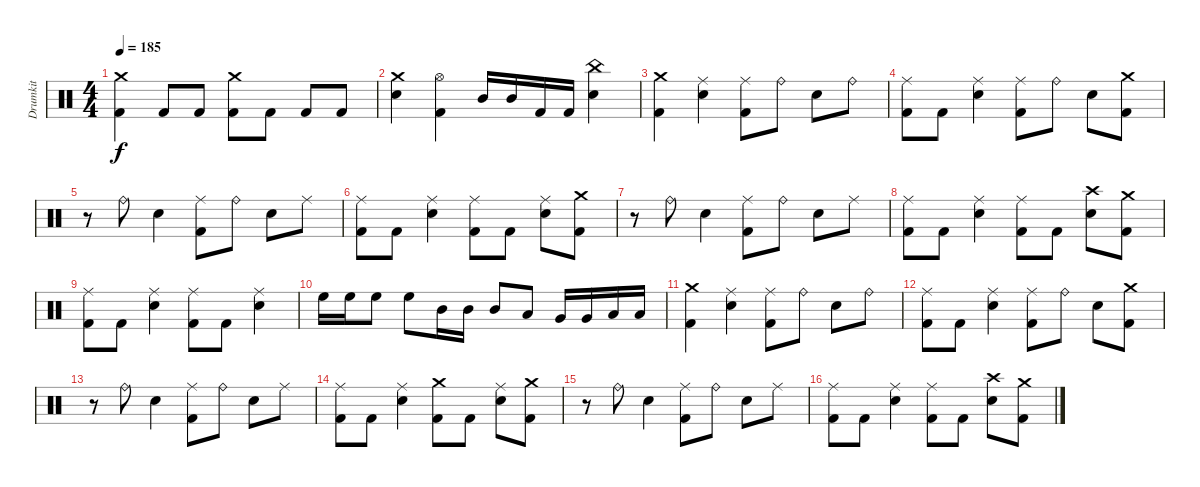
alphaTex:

\track ("Drumkit" "Drumkit") {instrument percussion}
\staff {score}
\articulation defaults
\ts (4 4)
\tempo 185
\clef neutral
\ks c
("Crash medium (hit)" "Kick (hit) 2").4{dy f} "Kick (hit) 2".8 "Kick (hit) 2".8 ("Crash medium (hit)" "Kick (hit) 2").8 "Kick (hit) 2".8 "Kick (hit) 2".8 "Kick (hit) 2".8 |
("Crash medium (hit)" "Snare (hit) 2").4 ("Hi-Hat (open)" "Kick (hit) 2").4 "Mid Tom (hit)".16 "Mid Tom (hit)".16 "Kick (hit) 2".16 "Kick (hit) 2".16 ("China (hit)" "Snare (hit) 2").4 |
("Crash medium (hit)" "Kick (hit) 2").4 ("Ride (middle)" "Snare (hit) 2").4 ("Ride (middle)" "Kick (hit) 2").8 "Ride (bell)".8 "Snare (hit) 2".8 "Ride (bell)".8 |
("Ride (middle)" "Kick (hit) 2").8 "Kick (hit) 2".8 ("Ride (middle)" "Snare (hit) 2").4 ("Ride (middle)" "Kick (hit) 2").8 "Ride (bell)".8 "Snare (hit) 2".8 ("Crash medium (hit)" "Kick (hit) 2").8 |
r.8 "Ride (bell)".8 "Snare (hit) 2".4 ("Ride (middle)" "Kick (hit) 2").8 "Ride (bell)".8 "Snare (hit) 2".8 "Ride (middle)".8 |
("Ride (middle)" "Kick (hit) 2").8 "Kick (hit) 2".8 ("Ride (middle)" "Snare (hit) 2").4 ("Ride (middle)" "Kick (hit) 2").8 "Kick (hit) 2".8 ("Ride (middle)" "Snare (hit) 2").8 ("Crash medium (hit)" "Kick (hit) 2").8 |
r.8 "Ride (bell)".8 "Snare (hit) 2".4 ("Ride (middle)" "Kick (hit) 2").8 "Ride (bell)".8 "Snare (hit) 2".8 "Ride (middle)".8 |
("Ride (middle)" "Kick (hit) 2").8 "Kick (hit) 2".8 ("Ride (middle)" "Snare (hit) 2").4 ("Ride (middle)" "Kick (hit) 2").8 "Kick (hit) 2".8 ("Crash high (hit)" "Snare (hit) 2").8 ("Crash medium (hit)" "Kick (hit) 2").8 |
("Ride (middle)" "Kick (hit) 2").8 "Kick (hit) 2".8 ("Ride (middle)" "Snare (hit) 2").4 ("Ride (middle)" "Kick (hit) 2").8 "Kick (hit) 2".8 ("Ride (middle)" "Snare (hit) 2").4 |
"High Floor Tom (hit)".16 "High Floor Tom (hit)".16 "High Floor Tom (hit)".8 "High Floor Tom (hit)".8 "Mid Tom (hit)".16 "Mid Tom (hit)".16 "Mid Tom (hit)".8 "Low Tom (hit)".8 "Very Low Tom (hit)".16 "Very Low Tom (hit)".16 "Low Floor Tom (hit)".16 "Low Floor Tom (hit)".16 |
("Crash medium (hit)" "Kick (hit) 2").4 ("Ride (middle)" "Snare (hit) 2").4 ("Ride (middle)" "Kick (hit) 2").8 "Ride (bell)".8 "Snare (hit) 2".8 "Ride (bell)".8 |
("Ride (middle)" "Kick (hit) 2").8 "Kick (hit) 2".8 ("Ride (middle)" "Snare (hit) 2").4 ("Ride (middle)" "Kick (hit) 2").8 "Ride (bell)".8 "Snare (hit) 2".8 ("Crash medium (hit)" "Kick (hit) 2").8 |
r.8 "Ride (bell)".8 "Snare (hit) 2".4 ("Ride (middle)" "Kick (hit) 2").8 "Ride (bell)".8 "Snare (hit) 2".8 "Ride (middle)".8 |
("Ride (middle)" "Kick (hit) 2").8 "Kick (hit) 2".8 ("Ride (middle)" "Snare (hit) 2").4 ("Crash medium (hit)" "Kick (hit) 2").8 "Kick (hit) 2".8 ("Ride (middle)" "Snare (hit) 2").8 ("Crash medium (hit)" "Kick (hit) 2").8 |
r.8 "Ride (bell)".8 "Snare (hit) 2".4 ("Ride (middle)" "Kick (hit) 2").8 "Ride (bell)".8 "Snare (hit) 2".8 "Ride (middle)".8 |
("Ride (middle)" "Kick (hit) 2").8 "Kick (hit) 2".8 ("Ride (middle)" "Snare (hit) 2").4 ("Ride (middle)" "Kick (hit) 2").8 "Kick (hit) 2".8 ("Crash high (hit)" "Snare (hit) 2").8 ("Crash medium (hit)" "Kick (hit) 2").8
